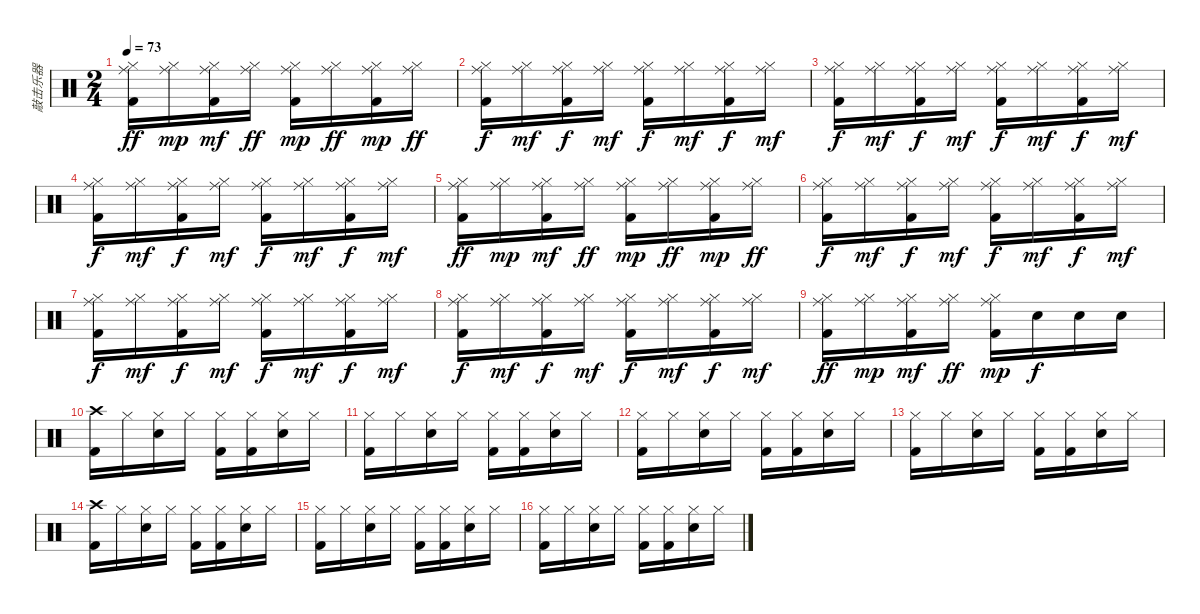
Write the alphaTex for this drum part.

\track ("敲击乐器" "敲击乐器") {instrument percussion}
\staff {score}
\articulation defaults
\ts (2 4)
\tempo 73
\clef neutral
\ks c
("Hi-Hat (closed)" "Kick (hit) 2" "Ride (middle)").16{dy ff} ("Hi-Hat (closed)" "Ride (middle)").16{dy mp} ("Hi-Hat (closed)" "Kick (hit) 2" "Ride (middle)").16{dy mf} ("Hi-Hat (closed)" "Ride (middle)").16{dy ff} ("Hi-Hat (closed)" "Kick (hit) 2" "Ride (middle)").16{dy mp} ("Hi-Hat (closed)" "Ride (middle)").16{dy ff} ("Hi-Hat (closed)" "Kick (hit) 2" "Ride (middle)").16{dy mp} ("Hi-Hat (closed)" "Ride (middle)").16{dy ff} |
("Hi-Hat (closed)" "Kick (hit) 2" "Ride (middle)").16{dy f} ("Hi-Hat (closed)" "Ride (middle)").16{dy mf} ("Hi-Hat (closed)" "Kick (hit) 2" "Ride (middle)").16{dy f} ("Hi-Hat (closed)" "Ride (middle)").16{dy mf} ("Hi-Hat (closed)" "Kick (hit) 2" "Ride (middle)").16{dy f} ("Hi-Hat (closed)" "Ride (middle)").16{dy mf} ("Hi-Hat (closed)" "Kick (hit) 2" "Ride (middle)").16{dy f} ("Hi-Hat (closed)" "Ride (middle)").16{dy mf} |
("Hi-Hat (closed)" "Kick (hit) 2" "Ride (middle)").16{dy f} ("Hi-Hat (closed)" "Ride (middle)").16{dy mf} ("Hi-Hat (closed)" "Kick (hit) 2" "Ride (middle)").16{dy f} ("Hi-Hat (closed)" "Ride (middle)").16{dy mf} ("Hi-Hat (closed)" "Kick (hit) 2" "Ride (middle)").16{dy f} ("Hi-Hat (closed)" "Ride (middle)").16{dy mf} ("Hi-Hat (closed)" "Kick (hit) 2" "Ride (middle)").16{dy f} ("Hi-Hat (closed)" "Ride (middle)").16{dy mf} |
("Hi-Hat (closed)" "Kick (hit) 2" "Ride (middle)").16{dy f} ("Hi-Hat (closed)" "Ride (middle)").16{dy mf} ("Hi-Hat (closed)" "Kick (hit) 2" "Ride (middle)").16{dy f} ("Hi-Hat (closed)" "Ride (middle)").16{dy mf} ("Hi-Hat (closed)" "Kick (hit) 2" "Ride (middle)").16{dy f} ("Hi-Hat (closed)" "Ride (middle)").16{dy mf} ("Hi-Hat (closed)" "Kick (hit) 2" "Ride (middle)").16{dy f} ("Hi-Hat (closed)" "Ride (middle)").16{dy mf} |
("Hi-Hat (closed)" "Kick (hit) 2" "Ride (middle)").16{dy ff} ("Hi-Hat (closed)" "Ride (middle)").16{dy mp} ("Hi-Hat (closed)" "Kick (hit) 2" "Ride (middle)").16{dy mf} ("Hi-Hat (closed)" "Ride (middle)").16{dy ff} ("Hi-Hat (closed)" "Kick (hit) 2" "Ride (middle)").16{dy mp} ("Hi-Hat (closed)" "Ride (middle)").16{dy ff} ("Hi-Hat (closed)" "Kick (hit) 2" "Ride (middle)").16{dy mp} ("Hi-Hat (closed)" "Ride (middle)").16{dy ff} |
("Hi-Hat (closed)" "Kick (hit) 2" "Ride (middle)").16{dy f} ("Hi-Hat (closed)" "Ride (middle)").16{dy mf} ("Hi-Hat (closed)" "Kick (hit) 2" "Ride (middle)").16{dy f} ("Hi-Hat (closed)" "Ride (middle)").16{dy mf} ("Hi-Hat (closed)" "Kick (hit) 2" "Ride (middle)").16{dy f} ("Hi-Hat (closed)" "Ride (middle)").16{dy mf} ("Hi-Hat (closed)" "Kick (hit) 2" "Ride (middle)").16{dy f} ("Hi-Hat (closed)" "Ride (middle)").16{dy mf} |
("Hi-Hat (closed)" "Kick (hit) 2" "Ride (middle)").16{dy f} ("Hi-Hat (closed)" "Ride (middle)").16{dy mf} ("Hi-Hat (closed)" "Kick (hit) 2" "Ride (middle)").16{dy f} ("Hi-Hat (closed)" "Ride (middle)").16{dy mf} ("Hi-Hat (closed)" "Kick (hit) 2" "Ride (middle)").16{dy f} ("Hi-Hat (closed)" "Ride (middle)").16{dy mf} ("Hi-Hat (closed)" "Kick (hit) 2" "Ride (middle)").16{dy f} ("Hi-Hat (closed)" "Ride (middle)").16{dy mf} |
("Hi-Hat (closed)" "Kick (hit) 2" "Ride (middle)").16{dy f} ("Hi-Hat (closed)" "Ride (middle)").16{dy mf} ("Hi-Hat (closed)" "Kick (hit) 2" "Ride (middle)").16{dy f} ("Hi-Hat (closed)" "Ride (middle)").16{dy mf} ("Hi-Hat (closed)" "Kick (hit) 2" "Ride (middle)").16{dy f} ("Hi-Hat (closed)" "Ride (middle)").16{dy mf} ("Hi-Hat (closed)" "Kick (hit) 2" "Ride (middle)").16{dy f} ("Hi-Hat (closed)" "Ride (middle)").16{dy mf} |
("Hi-Hat (closed)" "Kick (hit) 2" "Ride (middle)").16{dy ff} ("Hi-Hat (closed)" "Ride (middle)").16{dy mp} ("Hi-Hat (closed)" "Kick (hit) 2" "Ride (middle)").16{dy mf} ("Hi-Hat (closed)" "Ride (middle)").16{dy ff} ("Hi-Hat (closed)" "Kick (hit) 2" "Ride (middle)").16{dy mp} "Electric Snare (hit)".16{dy f} "Electric Snare (hit)".16 "Electric Snare (hit)".16 |
("Crash high (hit)" "Kick (hit) 2").16 "Hi-Hat (closed)".16 ("Hi-Hat (closed)" "Electric Snare (hit)").16 "Hi-Hat (closed)".16 ("Hi-Hat (closed)" "Kick (hit) 2").16 ("Hi-Hat (closed)" "Kick (hit) 2").16 ("Hi-Hat (closed)" "Electric Snare (hit)").16 "Hi-Hat (closed)".16 |
("Hi-Hat (closed)" "Kick (hit) 2").16 "Hi-Hat (closed)".16 ("Hi-Hat (closed)" "Electric Snare (hit)").16 "Hi-Hat (closed)".16 ("Hi-Hat (closed)" "Kick (hit) 2").16 ("Hi-Hat (closed)" "Kick (hit) 2").16 ("Hi-Hat (closed)" "Electric Snare (hit)").16 "Hi-Hat (closed)".16 |
("Hi-Hat (closed)" "Kick (hit) 2").16 "Hi-Hat (closed)".16 ("Hi-Hat (closed)" "Electric Snare (hit)").16 "Hi-Hat (closed)".16 ("Hi-Hat (closed)" "Kick (hit) 2").16 ("Hi-Hat (closed)" "Kick (hit) 2").16 ("Hi-Hat (closed)" "Electric Snare (hit)").16 "Hi-Hat (closed)".16 |
("Hi-Hat (closed)" "Kick (hit) 2").16 "Hi-Hat (closed)".16 ("Hi-Hat (closed)" "Electric Snare (hit)").16 "Hi-Hat (closed)".16 ("Hi-Hat (closed)" "Kick (hit) 2").16 ("Hi-Hat (closed)" "Kick (hit) 2").16 ("Hi-Hat (closed)" "Electric Snare (hit)").16 "Hi-Hat (closed)".16 |
("Crash high (hit)" "Kick (hit) 2").16 "Hi-Hat (closed)".16 ("Hi-Hat (closed)" "Electric Snare (hit)").16 "Hi-Hat (closed)".16 ("Hi-Hat (closed)" "Kick (hit) 2").16 ("Hi-Hat (closed)" "Kick (hit) 2").16 ("Hi-Hat (closed)" "Electric Snare (hit)").16 "Hi-Hat (closed)".16 |
("Hi-Hat (closed)" "Kick (hit) 2").16 "Hi-Hat (closed)".16 ("Hi-Hat (closed)" "Electric Snare (hit)").16 "Hi-Hat (closed)".16 ("Hi-Hat (closed)" "Kick (hit) 2").16 ("Hi-Hat (closed)" "Kick (hit) 2").16 ("Hi-Hat (closed)" "Electric Snare (hit)").16 "Hi-Hat (closed)".16 |
("Hi-Hat (closed)" "Kick (hit) 2").16 "Hi-Hat (closed)".16 ("Hi-Hat (closed)" "Electric Snare (hit)").16 "Hi-Hat (closed)".16 ("Hi-Hat (closed)" "Kick (hit) 2").16 ("Hi-Hat (closed)" "Kick (hit) 2").16 ("Hi-Hat (closed)" "Electric Snare (hit)").16 "Hi-Hat (closed)".16
